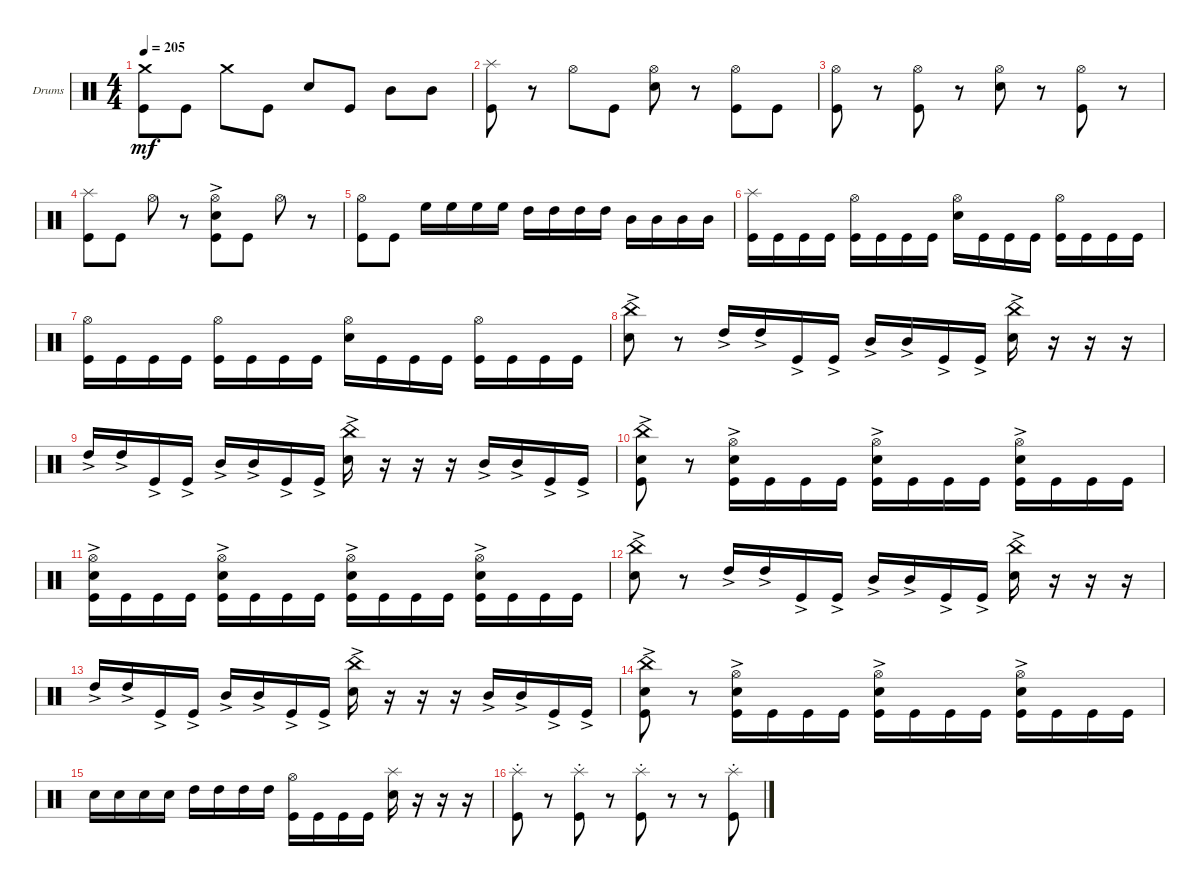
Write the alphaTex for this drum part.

\defaultSystemsLayout 4
\bracketExtendMode groupsimilarinstruments
\firstSystemTrackNameOrientation horizontal
\otherSystemsTrackNameOrientation horizontal
\track ("Drumkit" "Drums") {instrument percussion}
\staff {score}
\articulation defaults
\ts (4 4)
\tempo 205
\clef neutral
\ks c
("Kick (hit)" "Crash medium (hit)").8{dy mf} "Kick (hit)".8 "Crash medium (hit)".8 "Kick (hit)".8 "Snare (hit) 2".8 "Kick (hit)".8 "Mid Tom (hit)".8 "Mid Tom (hit)".8 |
("Kick (hit)" "Splash (hit)").8 r.8 "Hi-Hat (open)".8 "Kick (hit)".8 ("Snare (hit) 2" "Hi-Hat (open)").8 r.8 ("Kick (hit)" "Hi-Hat (open)").8 "Kick (hit)".8 |
("Kick (hit)" "Hi-Hat (open)").8 r.8 ("Kick (hit)" "Hi-Hat (open)").8 r.8 ("Snare (hit) 2" "Hi-Hat (open)").8 r.8 ("Kick (hit)" "Hi-Hat (open)").8 r.8 |
("Kick (hit)" "Splash (hit)").8 "Kick (hit)".8 "Hi-Hat (open)".8 r.8 ("Snare (hit) 2"{ac} "Kick (hit)" "Hi-Hat (open)").8 "Kick (hit)".8 "Hi-Hat (open)".8 r.8 |
("Kick (hit)" "Hi-Hat (open)").8 "Kick (hit)".8 "High Floor Tom (hit)".16 "High Floor Tom (hit)".16 "High Floor Tom (hit)".16 "High Floor Tom (hit)".16 "High Tom (hit)".16 "High Tom (hit)".16 "High Tom (hit)".16 "High Tom (hit)".16 "Mid Tom (hit)".16 "Mid Tom (hit)".16 "Mid Tom (hit)".16 "Mid Tom (hit)".16 |
("Kick (hit)" "Splash (hit)").16 "Kick (hit)".16 "Kick (hit)".16 "Kick (hit)".16 ("Kick (hit)" "Hi-Hat (open)").16 "Kick (hit)".16 "Kick (hit)".16 "Kick (hit)".16 ("Snare (hit) 2" "Hi-Hat (open)").16 "Kick (hit)".16 "Kick (hit)".16 "Kick (hit)".16 ("Kick (hit)" "Hi-Hat (open)").16 "Kick (hit)".16 "Kick (hit)".16 "Kick (hit)".16 |
("Kick (hit)" "Hi-Hat (open)").16 "Kick (hit)".16 "Kick (hit)".16 "Kick (hit)".16 ("Kick (hit)" "Hi-Hat (open)").16 "Kick (hit)".16 "Kick (hit)".16 "Kick (hit)".16 ("Snare (hit) 2" "Hi-Hat (open)").16 "Kick (hit)".16 "Kick (hit)".16 "Kick (hit)".16 ("Kick (hit)" "Hi-Hat (open)").16 "Kick (hit)".16 "Kick (hit)".16 "Kick (hit)".16 |
("Snare (hit) 2"{ac} "China (hit)"{ac}).8 r.8 "High Tom (hit)"{ac}.16 "High Tom (hit)"{ac}.16 "Kick (hit)"{ac}.16 "Kick (hit)"{ac}.16 "Mid Tom (hit)"{ac}.16 "Mid Tom (hit)"{ac}.16 "Kick (hit)"{ac}.16 "Kick (hit)"{ac}.16 ("Snare (hit) 2"{ac} "China (hit)"{ac}).16 r.16 r.16 r.16 |
"High Tom (hit)"{ac}.16 "High Tom (hit)"{ac}.16 "Kick (hit)"{ac}.16 "Kick (hit)"{ac}.16 "Mid Tom (hit)"{ac}.16 "Mid Tom (hit)"{ac}.16 "Kick (hit)"{ac}.16 "Kick (hit)"{ac}.16 ("Snare (hit) 2"{ac} "China (hit)"{ac}).16 r.16 r.16 r.16 "Mid Tom (hit)"{ac}.16 "Mid Tom (hit)"{ac}.16 "Kick (hit)"{ac}.16 "Kick (hit)"{ac}.16 |
("Snare (hit) 2"{ac} "Kick (hit)"{ac} "China (hit)"{ac}).8 r.8 ("Snare (hit) 2"{ac} "Kick (hit)" "Hi-Hat (open)").16 "Kick (hit)".16 "Kick (hit)".16 "Kick (hit)".16 ("Snare (hit) 2"{ac} "Kick (hit)" "Hi-Hat (open)").16 "Kick (hit)".16 "Kick (hit)".16 "Kick (hit)".16 ("Snare (hit) 2"{ac} "Kick (hit)" "Hi-Hat (open)"{ac}).16 "Kick (hit)".16 "Kick (hit)".16 "Kick (hit)".16 |
("Snare (hit) 2"{ac} "Kick (hit)" "Hi-Hat (open)").16 "Kick (hit)".16 "Kick (hit)".16 "Kick (hit)".16 ("Snare (hit) 2"{ac} "Kick (hit)" "Hi-Hat (open)"{ac}).16 "Kick (hit)".16 "Kick (hit)".16 "Kick (hit)".16 ("Snare (hit) 2"{ac} "Kick (hit)" "Hi-Hat (open)").16 "Kick (hit)".16 "Kick (hit)".16 "Kick (hit)".16 ("Snare (hit) 2"{ac} "Kick (hit)" "Hi-Hat (open)"{ac}).16 "Kick (hit)".16 "Kick (hit)".16 "Kick (hit)".16 |
("Snare (hit) 2"{ac} "China (hit)"{ac}).8 r.8 "High Tom (hit)"{ac}.16 "High Tom (hit)"{ac}.16 "Kick (hit)"{ac}.16 "Kick (hit)"{ac}.16 "Mid Tom (hit)"{ac}.16 "Mid Tom (hit)"{ac}.16 "Kick (hit)"{ac}.16 "Kick (hit)"{ac}.16 ("Snare (hit) 2"{ac} "China (hit)"{ac}).16 r.16 r.16 r.16 |
"High Tom (hit)"{ac}.16 "High Tom (hit)"{ac}.16 "Kick (hit)"{ac}.16 "Kick (hit)"{ac}.16 "Mid Tom (hit)"{ac}.16 "Mid Tom (hit)"{ac}.16 "Kick (hit)"{ac}.16 "Kick (hit)"{ac}.16 ("Snare (hit) 2"{ac} "China (hit)"{ac}).16 r.16 r.16 r.16 "Mid Tom (hit)"{ac}.16 "Mid Tom (hit)"{ac}.16 "Kick (hit)"{ac}.16 "Kick (hit)"{ac}.16 |
("Snare (hit) 2"{ac} "Kick (hit)"{ac} "China (hit)"{ac}).8 r.8 ("Snare (hit) 2"{ac} "Kick (hit)" "Hi-Hat (open)").16 "Kick (hit)".16 "Kick (hit)".16 "Kick (hit)".16 ("Snare (hit) 2"{ac} "Kick (hit)" "Hi-Hat (open)").16 "Kick (hit)".16 "Kick (hit)".16 "Kick (hit)".16 ("Snare (hit) 2"{ac} "Kick (hit)" "Hi-Hat (open)"{ac}).16 "Kick (hit)".16 "Kick (hit)".16 "Kick (hit)".16 |
"Snare (hit) 2".16 "Snare (hit) 2".16 "Snare (hit) 2".16 "Snare (hit) 2".16 "High Tom (hit)".16 "High Tom (hit)".16 "High Tom (hit)".16 "High Tom (hit)".16 ("Hi-Hat (open)" "Kick (hit)").16 "Kick (hit)".16 "Kick (hit)".16 "Kick (hit)".16 ("Snare (hit) 2" "Splash (hit)").16 r.16 r.16 r.16 |
("Kick (hit)" "Splash (hit)"{st}).8 r.8 ("Kick (hit)" "Splash (hit)"{st}).8 r.8 ("Kick (hit)" "Splash (hit)"{st}).8 r.8 r.8 ("Kick (hit)" "Splash (hit)"{st}).8
